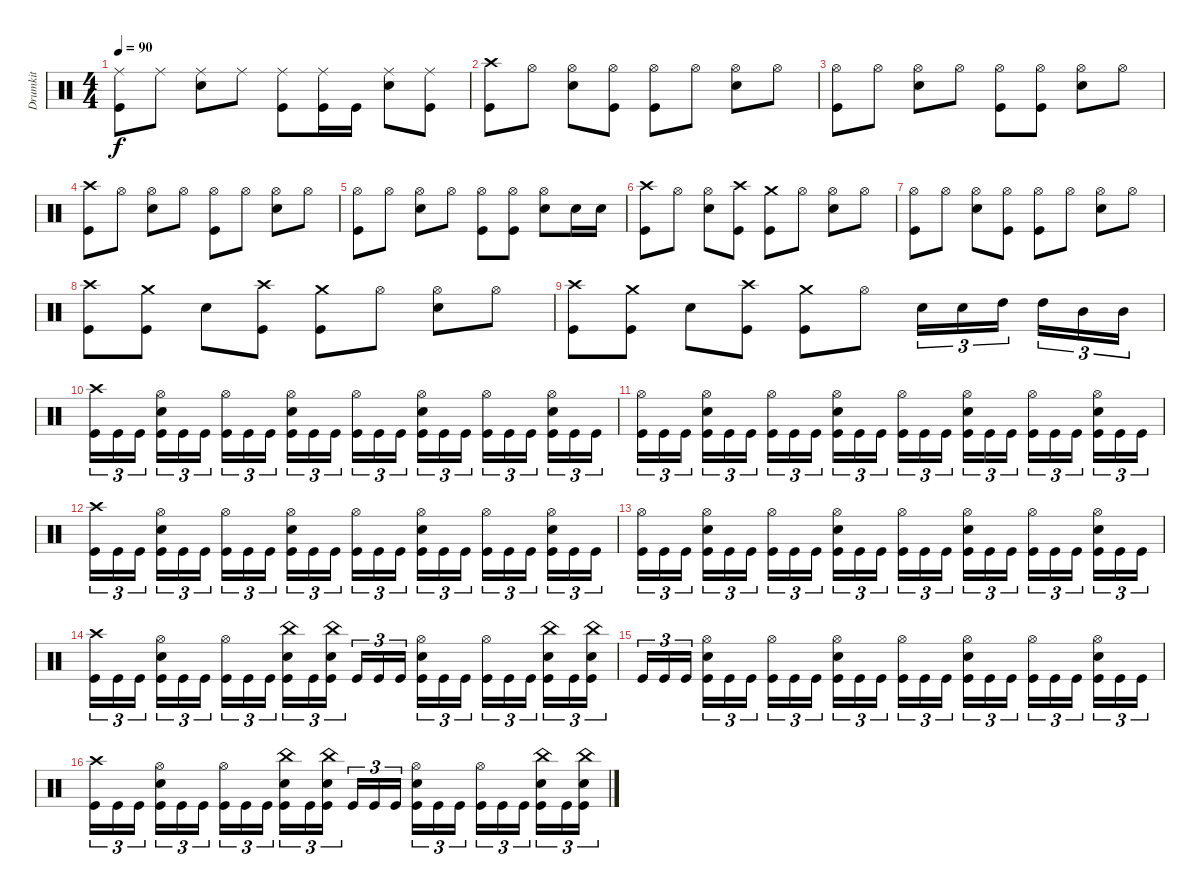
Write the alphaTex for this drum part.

\track ("Drumkit" "Drumkit") {instrument percussion}
\staff {score}
\articulation defaults
\ts (4 4)
\tempo 90
\clef neutral
\ks c
("Ride (middle)" "Kick (hit)").8{dy f} "Ride (middle)".8 ("Ride (middle)" "Snare (hit) 2").8 "Ride (middle)".8 ("Ride (middle)" "Kick (hit)").8 ("Ride (middle)" "Kick (hit)").16 "Kick (hit)".16 ("Ride (middle)" "Snare (hit) 2").8 ("Ride (middle)" "Kick (hit)").8 |
("Crash high (hit)" "Kick (hit)").8 "Hi-Hat (open)".8 ("Hi-Hat (open)" "Snare (hit) 2").8 ("Hi-Hat (open)" "Kick (hit)").8 ("Hi-Hat (open)" "Kick (hit)").8 "Hi-Hat (open)".8 ("Hi-Hat (open)" "Snare (hit) 2").8 "Hi-Hat (open)".8 |
("Hi-Hat (open)" "Kick (hit)").8 "Hi-Hat (open)".8 ("Hi-Hat (open)" "Snare (hit) 2").8 "Hi-Hat (open)".8 ("Hi-Hat (open)" "Kick (hit)").8 ("Hi-Hat (open)" "Kick (hit)").8 ("Hi-Hat (open)" "Snare (hit) 2").8 "Hi-Hat (open)".8 |
("Crash high (hit)" "Kick (hit)").8 "Hi-Hat (open)".8 ("Hi-Hat (open)" "Snare (hit) 2").8 "Hi-Hat (open)".8 ("Hi-Hat (open)" "Kick (hit)").8 "Hi-Hat (open)".8 ("Hi-Hat (open)" "Snare (hit) 2").8 "Hi-Hat (open)".8 |
("Hi-Hat (open)" "Kick (hit)").8 "Hi-Hat (open)".8 ("Hi-Hat (open)" "Snare (hit) 2").8 "Hi-Hat (open)".8 ("Hi-Hat (open)" "Kick (hit)").8 ("Hi-Hat (open)" "Kick (hit)").8 ("Hi-Hat (open)" "Snare (hit) 2").8 "Snare (hit) 2".16 "Snare (hit) 2".16 |
("Crash high (hit)" "Kick (hit)").8 "Hi-Hat (open)".8 ("Hi-Hat (open)" "Snare (hit) 2").8 ("Crash high (hit)" "Kick (hit)").8 ("Crash medium (hit)" "Kick (hit)").8 "Hi-Hat (open)".8 ("Hi-Hat (open)" "Snare (hit) 2").8 "Hi-Hat (open)".8 |
("Hi-Hat (open)" "Kick (hit)").8 "Hi-Hat (open)".8 ("Hi-Hat (open)" "Snare (hit) 2").8 ("Hi-Hat (open)" "Kick (hit)").8 ("Hi-Hat (open)" "Kick (hit)").8 "Hi-Hat (open)".8 ("Hi-Hat (open)" "Snare (hit) 2").8 "Hi-Hat (open)".8 |
("Crash high (hit)" "Kick (hit)").8 ("Crash medium (hit)" "Kick (hit)").8 "Snare (hit) 2".8 ("Crash high (hit)" "Kick (hit)").8 ("Crash medium (hit)" "Kick (hit)").8 "Hi-Hat (open)".8 ("Hi-Hat (open)" "Snare (hit) 2").8 "Hi-Hat (open)".8 |
("Crash high (hit)" "Kick (hit)").8 ("Crash medium (hit)" "Kick (hit)").8 "Snare (hit) 2".8 ("Crash high (hit)" "Kick (hit)").8 ("Crash medium (hit)" "Kick (hit)").8 "Hi-Hat (open)".8 "Snare (hit) 2".16{tu (3 2)} "Snare (hit) 2".16{tu (3 2)} "High Tom (hit)".16{tu (3 2) beam splitsecondary} "High Tom (hit)".16{tu (3 2)} "Mid Tom (hit)".16{tu (3 2)} "Mid Tom (hit)".16{tu (3 2)} |
("Crash high (hit)" "Kick (hit)").16{tu (3 2)} "Kick (hit)".16{tu (3 2)} "Kick (hit)".16{tu (3 2) beam splitsecondary} ("Hi-Hat (open)" "Snare (hit) 2" "Kick (hit)").16{tu (3 2)} "Kick (hit)".16{tu (3 2)} "Kick (hit)".16{tu (3 2)} ("Hi-Hat (open)" "Kick (hit)").16{tu (3 2)} "Kick (hit)".16{tu (3 2)} "Kick (hit)".16{tu (3 2) beam splitsecondary} ("Hi-Hat (open)" "Snare (hit) 2" "Kick (hit)").16{tu (3 2)} "Kick (hit)".16{tu (3 2)} "Kick (hit)".16{tu (3 2)} ("Hi-Hat (open)" "Kick (hit)").16{tu (3 2)} "Kick (hit)".16{tu (3 2)} "Kick (hit)".16{tu (3 2) beam splitsecondary} ("Hi-Hat (open)" "Snare (hit) 2" "Kick (hit)").16{tu (3 2)} "Kick (hit)".16{tu (3 2)} "Kick (hit)".16{tu (3 2)} ("Hi-Hat (open)" "Kick (hit)").16{tu (3 2)} "Kick (hit)".16{tu (3 2)} "Kick (hit)".16{tu (3 2) beam splitsecondary} ("Hi-Hat (open)" "Snare (hit) 2" "Kick (hit)").16{tu (3 2)} "Kick (hit)".16{tu (3 2)} "Kick (hit)".16{tu (3 2)} |
("Hi-Hat (open)" "Kick (hit)").16{tu (3 2)} "Kick (hit)".16{tu (3 2)} "Kick (hit)".16{tu (3 2) beam splitsecondary} ("Hi-Hat (open)" "Snare (hit) 2" "Kick (hit)").16{tu (3 2)} "Kick (hit)".16{tu (3 2)} "Kick (hit)".16{tu (3 2)} ("Hi-Hat (open)" "Kick (hit)").16{tu (3 2)} "Kick (hit)".16{tu (3 2)} "Kick (hit)".16{tu (3 2) beam splitsecondary} ("Hi-Hat (open)" "Snare (hit) 2" "Kick (hit)").16{tu (3 2)} "Kick (hit)".16{tu (3 2)} "Kick (hit)".16{tu (3 2)} ("Hi-Hat (open)" "Kick (hit)").16{tu (3 2)} "Kick (hit)".16{tu (3 2)} "Kick (hit)".16{tu (3 2) beam splitsecondary} ("Hi-Hat (open)" "Snare (hit) 2" "Kick (hit)").16{tu (3 2)} "Kick (hit)".16{tu (3 2)} "Kick (hit)".16{tu (3 2)} ("Hi-Hat (open)" "Kick (hit)").16{tu (3 2)} "Kick (hit)".16{tu (3 2)} "Kick (hit)".16{tu (3 2) beam splitsecondary} ("Hi-Hat (open)" "Snare (hit) 2" "Kick (hit)").16{tu (3 2)} "Kick (hit)".16{tu (3 2)} "Kick (hit)".16{tu (3 2)} |
("Crash high (hit)" "Kick (hit)").16{tu (3 2)} "Kick (hit)".16{tu (3 2)} "Kick (hit)".16{tu (3 2) beam splitsecondary} ("Hi-Hat (open)" "Snare (hit) 2" "Kick (hit)").16{tu (3 2)} "Kick (hit)".16{tu (3 2)} "Kick (hit)".16{tu (3 2)} ("Hi-Hat (open)" "Kick (hit)").16{tu (3 2)} "Kick (hit)".16{tu (3 2)} "Kick (hit)".16{tu (3 2) beam splitsecondary} ("Hi-Hat (open)" "Snare (hit) 2" "Kick (hit)").16{tu (3 2)} "Kick (hit)".16{tu (3 2)} "Kick (hit)".16{tu (3 2)} ("Hi-Hat (open)" "Kick (hit)").16{tu (3 2)} "Kick (hit)".16{tu (3 2)} "Kick (hit)".16{tu (3 2) beam splitsecondary} ("Hi-Hat (open)" "Snare (hit) 2" "Kick (hit)").16{tu (3 2)} "Kick (hit)".16{tu (3 2)} "Kick (hit)".16{tu (3 2)} ("Hi-Hat (open)" "Kick (hit)").16{tu (3 2)} "Kick (hit)".16{tu (3 2)} "Kick (hit)".16{tu (3 2) beam splitsecondary} ("Hi-Hat (open)" "Snare (hit) 2" "Kick (hit)").16{tu (3 2)} "Kick (hit)".16{tu (3 2)} "Kick (hit)".16{tu (3 2)} |
("Hi-Hat (open)" "Kick (hit)").16{tu (3 2)} "Kick (hit)".16{tu (3 2)} "Kick (hit)".16{tu (3 2) beam splitsecondary} ("Hi-Hat (open)" "Snare (hit) 2" "Kick (hit)").16{tu (3 2)} "Kick (hit)".16{tu (3 2)} "Kick (hit)".16{tu (3 2)} ("Hi-Hat (open)" "Kick (hit)").16{tu (3 2)} "Kick (hit)".16{tu (3 2)} "Kick (hit)".16{tu (3 2) beam splitsecondary} ("Hi-Hat (open)" "Snare (hit) 2" "Kick (hit)").16{tu (3 2)} "Kick (hit)".16{tu (3 2)} "Kick (hit)".16{tu (3 2)} ("Hi-Hat (open)" "Kick (hit)").16{tu (3 2)} "Kick (hit)".16{tu (3 2)} "Kick (hit)".16{tu (3 2) beam splitsecondary} ("Hi-Hat (open)" "Snare (hit) 2" "Kick (hit)").16{tu (3 2)} "Kick (hit)".16{tu (3 2)} "Kick (hit)".16{tu (3 2)} ("Hi-Hat (open)" "Kick (hit)").16{tu (3 2)} "Kick (hit)".16{tu (3 2)} "Kick (hit)".16{tu (3 2) beam splitsecondary} ("Hi-Hat (open)" "Snare (hit) 2" "Kick (hit)").16{tu (3 2)} "Kick (hit)".16{tu (3 2)} "Kick (hit)".16{tu (3 2)} |
("Crash high (hit)" "Kick (hit)").16{tu (3 2)} "Kick (hit)".16{tu (3 2)} "Kick (hit)".16{tu (3 2) beam splitsecondary} ("Hi-Hat (open)" "Snare (hit) 2" "Kick (hit)").16{tu (3 2)} "Kick (hit)".16{tu (3 2)} "Kick (hit)".16{tu (3 2)} ("Hi-Hat (open)" "Kick (hit)").16{tu (3 2)} "Kick (hit)".16{tu (3 2)} "Kick (hit)".16{tu (3 2) beam splitsecondary} ("China (hit)" "Snare (hit) 2" "Kick (hit)").16{tu (3 2)} "Kick (hit)".16{tu (3 2)} ("China (hit)" "Snare (hit) 2" "Kick (hit)").16{tu (3 2)} "Kick (hit)".16{tu (3 2)} "Kick (hit)".16{tu (3 2)} "Kick (hit)".16{tu (3 2) beam splitsecondary} ("Hi-Hat (open)" "Snare (hit) 2" "Kick (hit)").16{tu (3 2)} "Kick (hit)".16{tu (3 2)} "Kick (hit)".16{tu (3 2)} ("Hi-Hat (open)" "Kick (hit)").16{tu (3 2)} "Kick (hit)".16{tu (3 2)} "Kick (hit)".16{tu (3 2) beam splitsecondary} ("China (hit)" "Snare (hit) 2" "Kick (hit)").16{tu (3 2)} "Kick (hit)".16{tu (3 2)} ("China (hit)" "Snare (hit) 2" "Kick (hit)").16{tu (3 2)} |
"Kick (hit)".16{tu (3 2)} "Kick (hit)".16{tu (3 2)} "Kick (hit)".16{tu (3 2) beam splitsecondary} ("Hi-Hat (open)" "Snare (hit) 2" "Kick (hit)").16{tu (3 2)} "Kick (hit)".16{tu (3 2)} "Kick (hit)".16{tu (3 2)} ("Hi-Hat (open)" "Kick (hit)").16{tu (3 2)} "Kick (hit)".16{tu (3 2)} "Kick (hit)".16{tu (3 2) beam splitsecondary} ("Hi-Hat (open)" "Snare (hit) 2" "Kick (hit)").16{tu (3 2)} "Kick (hit)".16{tu (3 2)} "Kick (hit)".16{tu (3 2)} ("Hi-Hat (open)" "Kick (hit)").16{tu (3 2)} "Kick (hit)".16{tu (3 2)} "Kick (hit)".16{tu (3 2) beam splitsecondary} ("Hi-Hat (open)" "Snare (hit) 2" "Kick (hit)").16{tu (3 2)} "Kick (hit)".16{tu (3 2)} "Kick (hit)".16{tu (3 2)} ("Hi-Hat (open)" "Kick (hit)").16{tu (3 2)} "Kick (hit)".16{tu (3 2)} "Kick (hit)".16{tu (3 2) beam splitsecondary} ("Hi-Hat (open)" "Snare (hit) 2" "Kick (hit)").16{tu (3 2)} "Kick (hit)".16{tu (3 2)} "Kick (hit)".16{tu (3 2)} |
("Crash high (hit)" "Kick (hit)").16{tu (3 2)} "Kick (hit)".16{tu (3 2)} "Kick (hit)".16{tu (3 2) beam splitsecondary} ("Hi-Hat (open)" "Snare (hit) 2" "Kick (hit)").16{tu (3 2)} "Kick (hit)".16{tu (3 2)} "Kick (hit)".16{tu (3 2)} ("Hi-Hat (open)" "Kick (hit)").16{tu (3 2)} "Kick (hit)".16{tu (3 2)} "Kick (hit)".16{tu (3 2) beam splitsecondary} ("China (hit)" "Snare (hit) 2" "Kick (hit)").16{tu (3 2)} "Kick (hit)".16{tu (3 2)} ("China (hit)" "Snare (hit) 2" "Kick (hit)").16{tu (3 2)} "Kick (hit)".16{tu (3 2)} "Kick (hit)".16{tu (3 2)} "Kick (hit)".16{tu (3 2) beam splitsecondary} ("Hi-Hat (open)" "Snare (hit) 2" "Kick (hit)").16{tu (3 2)} "Kick (hit)".16{tu (3 2)} "Kick (hit)".16{tu (3 2)} ("Hi-Hat (open)" "Kick (hit)").16{tu (3 2)} "Kick (hit)".16{tu (3 2)} "Kick (hit)".16{tu (3 2) beam splitsecondary} ("China (hit)" "Snare (hit) 2" "Kick (hit)").16{tu (3 2)} "Kick (hit)".16{tu (3 2)} ("China (hit)" "Snare (hit) 2" "Kick (hit)").16{tu (3 2)}
